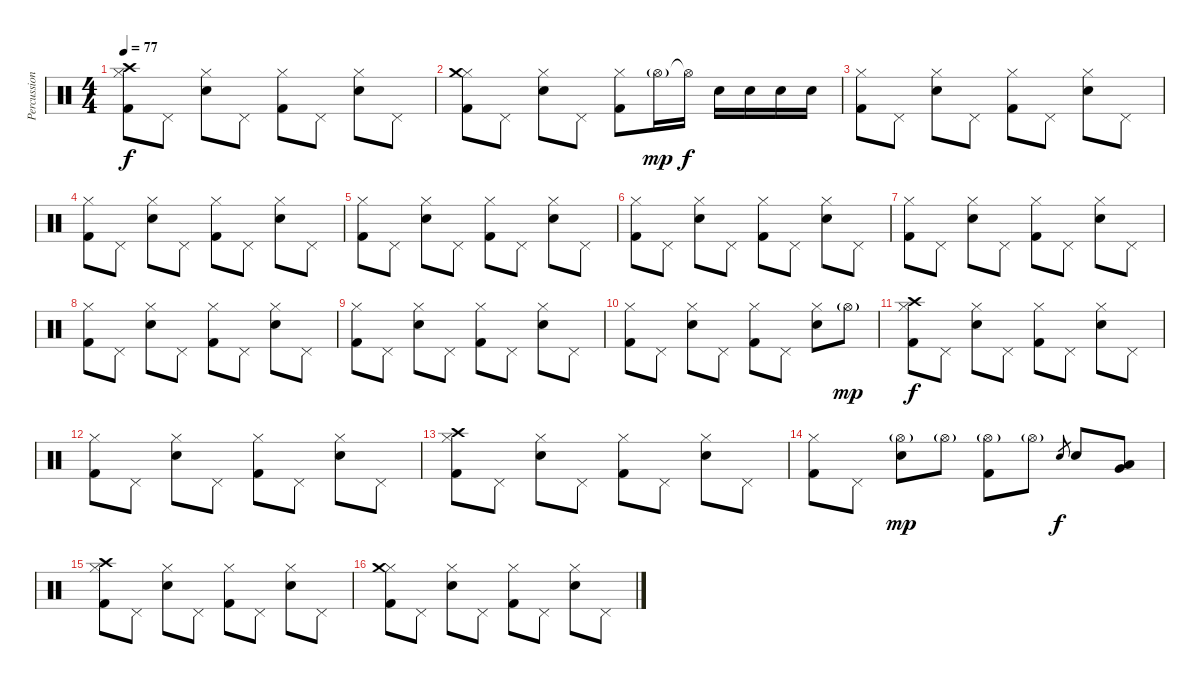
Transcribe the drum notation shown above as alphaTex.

\track ("Percussions" "Percussion") {instrument percussion}
\staff {score}
\articulation defaults
\ts (4 4)
\tempo 77
\clef neutral
\ks c
("Hi-Hat (closed)" "Crash high (hit)" "Kick (hit) 2").8{dy f} "Pedal Hi-Hat (hit)".8 ("Hi-Hat (closed)" "Snare (hit) 2").8 "Pedal Hi-Hat (hit)".8 ("Hi-Hat (closed)" "Kick (hit) 2").8 "Pedal Hi-Hat (hit)".8 ("Hi-Hat (closed)" "Snare (hit) 2").8 "Pedal Hi-Hat (hit)".8 |
("Hi-Hat (closed)" "Crash medium (hit)" "Kick (hit) 2").8 "Pedal Hi-Hat (hit)".8 ("Hi-Hat (closed)" "Snare (hit) 2").8 "Pedal Hi-Hat (hit)".8 ("Hi-Hat (closed)" "Kick (hit) 2").8 "Hi-Hat (open)"{g}.16{dy mp} "Hi-Hat (open)"{t}.16{dy f} "Snare (hit) 2".16 "Snare (hit) 2".16 "Snare (hit) 2".16 "Snare (hit) 2".16 |
("Hi-Hat (closed)" "Kick (hit) 2").8 "Pedal Hi-Hat (hit)".8 ("Hi-Hat (closed)" "Snare (hit) 2").8 "Pedal Hi-Hat (hit)".8 ("Hi-Hat (closed)" "Kick (hit) 2").8 "Pedal Hi-Hat (hit)".8 ("Hi-Hat (closed)" "Snare (hit) 2").8 "Pedal Hi-Hat (hit)".8 |
("Hi-Hat (closed)" "Kick (hit) 2").8 "Pedal Hi-Hat (hit)".8 ("Hi-Hat (closed)" "Snare (hit) 2").8 "Pedal Hi-Hat (hit)".8 ("Hi-Hat (closed)" "Kick (hit) 2").8 "Pedal Hi-Hat (hit)".8 ("Hi-Hat (closed)" "Snare (hit) 2").8 "Pedal Hi-Hat (hit)".8 |
("Hi-Hat (closed)" "Kick (hit) 2").8 "Pedal Hi-Hat (hit)".8 ("Hi-Hat (closed)" "Snare (hit) 2").8 "Pedal Hi-Hat (hit)".8 ("Hi-Hat (closed)" "Kick (hit) 2").8 "Pedal Hi-Hat (hit)".8 ("Hi-Hat (closed)" "Snare (hit) 2").8 "Pedal Hi-Hat (hit)".8 |
("Hi-Hat (closed)" "Kick (hit) 2").8 "Pedal Hi-Hat (hit)".8 ("Hi-Hat (closed)" "Snare (hit) 2").8 "Pedal Hi-Hat (hit)".8 ("Hi-Hat (closed)" "Kick (hit) 2").8 "Pedal Hi-Hat (hit)".8 ("Hi-Hat (closed)" "Snare (hit) 2").8 "Pedal Hi-Hat (hit)".8 |
("Hi-Hat (closed)" "Kick (hit) 2").8 "Pedal Hi-Hat (hit)".8 ("Hi-Hat (closed)" "Snare (hit) 2").8 "Pedal Hi-Hat (hit)".8 ("Hi-Hat (closed)" "Kick (hit) 2").8 "Pedal Hi-Hat (hit)".8 ("Hi-Hat (closed)" "Snare (hit) 2").8 "Pedal Hi-Hat (hit)".8 |
("Hi-Hat (closed)" "Kick (hit) 2").8 "Pedal Hi-Hat (hit)".8 ("Hi-Hat (closed)" "Snare (hit) 2").8 "Pedal Hi-Hat (hit)".8 ("Hi-Hat (closed)" "Kick (hit) 2").8 "Pedal Hi-Hat (hit)".8 ("Hi-Hat (closed)" "Snare (hit) 2").8 "Pedal Hi-Hat (hit)".8 |
("Hi-Hat (closed)" "Kick (hit) 2").8 "Pedal Hi-Hat (hit)".8 ("Hi-Hat (closed)" "Snare (hit) 2").8 "Pedal Hi-Hat (hit)".8 ("Hi-Hat (closed)" "Kick (hit) 2").8 "Pedal Hi-Hat (hit)".8 ("Hi-Hat (closed)" "Snare (hit) 2").8 "Pedal Hi-Hat (hit)".8 |
("Hi-Hat (closed)" "Kick (hit) 2").8 "Pedal Hi-Hat (hit)".8 ("Hi-Hat (closed)" "Snare (hit) 2").8 "Pedal Hi-Hat (hit)".8 ("Hi-Hat (closed)" "Kick (hit) 2").8 "Pedal Hi-Hat (hit)".8 ("Hi-Hat (closed)" "Snare (hit) 2").8 "Hi-Hat (open)"{g}.8{dy mp} |
("Hi-Hat (closed)" "Crash high (hit)" "Kick (hit) 2").8{dy f} "Pedal Hi-Hat (hit)".8 ("Hi-Hat (closed)" "Snare (hit) 2").8 "Pedal Hi-Hat (hit)".8 ("Hi-Hat (closed)" "Kick (hit) 2").8 "Pedal Hi-Hat (hit)".8 ("Hi-Hat (closed)" "Snare (hit) 2").8 "Pedal Hi-Hat (hit)".8 |
("Hi-Hat (closed)" "Kick (hit) 2").8 "Pedal Hi-Hat (hit)".8 ("Hi-Hat (closed)" "Snare (hit) 2").8 "Pedal Hi-Hat (hit)".8 ("Hi-Hat (closed)" "Kick (hit) 2").8 "Pedal Hi-Hat (hit)".8 ("Hi-Hat (closed)" "Snare (hit) 2").8 "Pedal Hi-Hat (hit)".8 |
("Hi-Hat (closed)" "Crash high (hit)" "Kick (hit) 2").8 "Pedal Hi-Hat (hit)".8 ("Hi-Hat (closed)" "Snare (hit) 2").8 "Pedal Hi-Hat (hit)".8 ("Hi-Hat (closed)" "Kick (hit) 2").8 "Pedal Hi-Hat (hit)".8 ("Hi-Hat (closed)" "Snare (hit) 2").8 "Pedal Hi-Hat (hit)".8 |
("Hi-Hat (closed)" "Kick (hit) 2").8 "Pedal Hi-Hat (hit)".8 ("Hi-Hat (open)"{g} "Snare (hit) 2").8{dy mp} "Hi-Hat (open)"{g}.8 ("Hi-Hat (open)"{g} "Kick (hit) 2").8 "Hi-Hat (open)"{g}.8 "Snare (hit) 2".8{gr dy f} "Snare (hit) 2".8 ("Very Low Tom (hit)" "Low Floor Tom (hit)").8 |
("Hi-Hat (closed)" "Crash high (hit)" "Kick (hit) 2").8 "Pedal Hi-Hat (hit)".8 ("Hi-Hat (closed)" "Snare (hit) 2").8 "Pedal Hi-Hat (hit)".8 ("Hi-Hat (closed)" "Kick (hit) 2").8 "Pedal Hi-Hat (hit)".8 ("Hi-Hat (closed)" "Snare (hit) 2").8 "Pedal Hi-Hat (hit)".8 |
("Hi-Hat (closed)" "Crash medium (hit)" "Kick (hit) 2").8 "Pedal Hi-Hat (hit)".8 ("Hi-Hat (closed)" "Snare (hit) 2").8 "Pedal Hi-Hat (hit)".8 ("Hi-Hat (closed)" "Kick (hit) 2").8 "Pedal Hi-Hat (hit)".8 ("Hi-Hat (closed)" "Snare (hit) 2").8 "Pedal Hi-Hat (hit)".8
